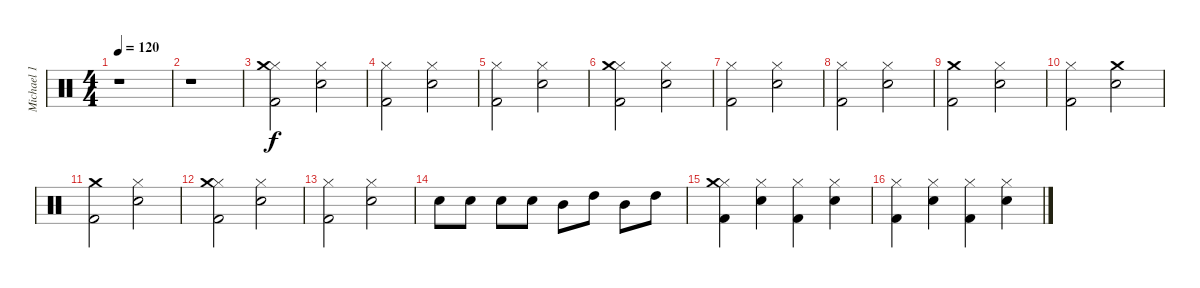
\track ("Michael 1" "Michael 1") {instrument percussion}
\staff {score}
\articulation defaults
\ts (4 4)
\tempo 120
\clef neutral
\ks c
r.1{dy f} |
r.1 |
("Kick (hit) 2" "Hi-Hat (closed)" "Crash medium (hit)").2 ("Snare (hit) 2" "Hi-Hat (closed)").2 |
("Kick (hit) 2" "Hi-Hat (closed)").2 ("Snare (hit) 2" "Hi-Hat (closed)").2 |
("Kick (hit) 2" "Hi-Hat (closed)").2 ("Snare (hit) 2" "Hi-Hat (closed)").2 |
("Kick (hit) 2" "Hi-Hat (closed)" "Crash medium (hit)").2 ("Snare (hit) 2" "Hi-Hat (closed)").2 |
("Kick (hit) 2" "Hi-Hat (closed)").2 ("Snare (hit) 2" "Hi-Hat (closed)").2 |
("Kick (hit) 2" "Hi-Hat (closed)").2 ("Snare (hit) 2" "Hi-Hat (closed)").2 |
("Kick (hit) 2" "Crash medium (hit)").2 ("Snare (hit) 2" "Hi-Hat (closed)").2 |
("Kick (hit) 2" "Hi-Hat (closed)").2 ("Snare (hit) 2" "Crash medium (hit)").2 |
("Kick (hit) 2" "Crash medium (hit)").2 ("Snare (hit) 2" "Hi-Hat (closed)").2 |
("Kick (hit) 2" "Hi-Hat (closed)" "Crash medium (hit)").2 ("Snare (hit) 2" "Hi-Hat (closed)").2 |
("Kick (hit) 2" "Hi-Hat (closed)").2 ("Snare (hit) 2" "Hi-Hat (closed)").2 |
"Snare (hit) 2".8 "Snare (hit) 2".8 "Snare (hit) 2".8 "Snare (hit) 2".8 "Mid Tom (hit)".8 "High Tom (hit)".8 "Mid Tom (hit)".8 "High Tom (hit)".8 |
("Kick (hit) 2" "Hi-Hat (closed)" "Crash medium (hit)").4 ("Snare (hit) 2" "Hi-Hat (closed)").4 ("Kick (hit) 2" "Hi-Hat (closed)").4 ("Snare (hit) 2" "Hi-Hat (closed)").4 |
("Kick (hit) 2" "Hi-Hat (closed)").4 ("Snare (hit) 2" "Hi-Hat (closed)").4 ("Kick (hit) 2" "Hi-Hat (closed)").4 ("Snare (hit) 2" "Hi-Hat (closed)").4
